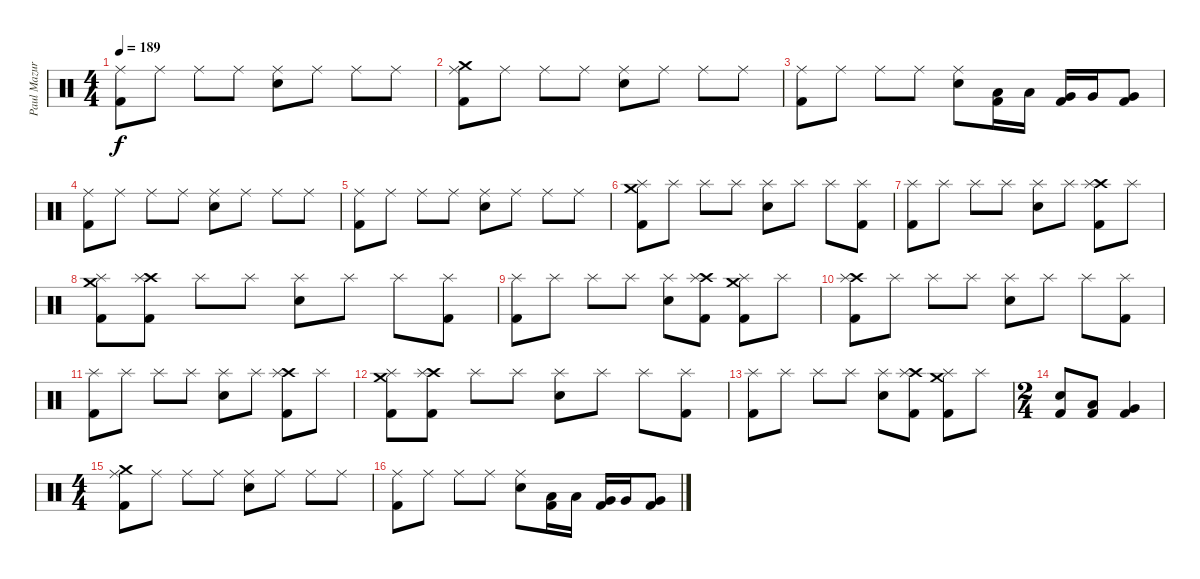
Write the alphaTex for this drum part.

\track ("Paul Mazurkevitch" "Paul Mazur") {instrument percussion}
\staff {score}
\articulation defaults
\ts (4 4)
\tempo 189
\clef neutral
\ks c
("Ride (middle)" "Kick (hit) 2").8{dy f} "Ride (middle)".8 "Ride (middle)".8 "Ride (middle)".8 ("Ride (middle)" "Electric Snare (hit)").8 "Ride (middle)".8 "Ride (middle)".8 "Ride (middle)".8 |
("Crash medium (hit)" "Ride (middle)" "Kick (hit) 2").8 "Ride (middle)".8 "Ride (middle)".8 "Ride (middle)".8 ("Ride (middle)" "Electric Snare (hit)").8 "Ride (middle)".8 "Ride (middle)".8 "Ride (middle)".8 |
("Ride (middle)" "Kick (hit) 2").8 "Ride (middle)".8 "Ride (middle)".8 "Ride (middle)".8 ("Ride (middle)" "Electric Snare (hit)").8 ("Low Tom (hit)" "Kick (hit) 2").16 "Low Tom (hit)".16 ("Very Low Tom (hit)" "Kick (hit) 2").16 "Very Low Tom (hit)".16 ("Very Low Tom (hit)" "Kick (hit) 2").8 |
("Ride (middle)" "Kick (hit) 2").8 "Ride (middle)".8 "Ride (middle)".8 "Ride (middle)".8 ("Ride (middle)" "Electric Snare (hit)").8 "Ride (middle)".8 "Ride (middle)".8 "Ride (middle)".8 |
("Ride (middle)" "Kick (hit) 2").8 "Ride (middle)".8 "Ride (middle)".8 "Ride (middle)".8 ("Ride (middle)" "Electric Snare (hit)").8 "Ride (middle)".8 "Ride (middle)".8 "Ride (middle)".8 |
("Crash medium (hit)" "Splash (hit)" "Kick (hit) 2").8 "Splash (hit)".8 "Splash (hit)".8 "Splash (hit)".8 ("Splash (hit)" "Electric Snare (hit)").8 "Splash (hit)".8 "Splash (hit)".8 ("Splash (hit)" "Kick (hit) 2").8 |
("Splash (hit)" "Kick (hit) 2").8 "Splash (hit)".8 "Splash (hit)".8 "Splash (hit)".8 ("Splash (hit)" "Electric Snare (hit)").8 "Splash (hit)".8 ("Crash high (hit)" "Splash (hit)" "Kick (hit) 2").8 "Splash (hit)".8 |
("Crash medium (hit)" "Splash (hit)" "Kick (hit) 2").8 ("Crash high (hit)" "Splash (hit)" "Kick (hit) 2").8 "Splash (hit)".8 "Splash (hit)".8 ("Splash (hit)" "Electric Snare (hit)").8 "Splash (hit)".8 "Splash (hit)".8 ("Splash (hit)" "Kick (hit) 2").8 |
("Splash (hit)" "Kick (hit) 2").8 "Splash (hit)".8 "Splash (hit)".8 "Splash (hit)".8 ("Splash (hit)" "Electric Snare (hit)").8 ("Crash high (hit)" "Splash (hit)" "Kick (hit) 2").8 ("Crash medium (hit)" "Splash (hit)" "Kick (hit) 2").8 "Splash (hit)".8 |
("Crash high (hit)" "Splash (hit)" "Kick (hit) 2").8 "Splash (hit)".8 "Splash (hit)".8 "Splash (hit)".8 ("Splash (hit)" "Electric Snare (hit)").8 "Splash (hit)".8 "Splash (hit)".8 ("Splash (hit)" "Kick (hit) 2").8 |
("Splash (hit)" "Kick (hit) 2").8 "Splash (hit)".8 "Splash (hit)".8 "Splash (hit)".8 ("Splash (hit)" "Electric Snare (hit)").8 "Splash (hit)".8 ("Crash high (hit)" "Splash (hit)" "Kick (hit) 2").8 "Splash (hit)".8 |
("Crash medium (hit)" "Splash (hit)" "Kick (hit) 2").8 ("Crash high (hit)" "Splash (hit)" "Kick (hit) 2").8 "Splash (hit)".8 "Splash (hit)".8 ("Splash (hit)" "Electric Snare (hit)").8 "Splash (hit)".8 "Splash (hit)".8 ("Splash (hit)" "Kick (hit) 2").8 |
("Splash (hit)" "Kick (hit) 2").8 "Splash (hit)".8 "Splash (hit)".8 "Splash (hit)".8 ("Splash (hit)" "Electric Snare (hit)").8 ("Crash high (hit)" "Splash (hit)" "Kick (hit) 2").8 ("Crash medium (hit)" "Splash (hit)" "Kick (hit) 2").8 "Splash (hit)".8 |
\ts (2 4)
("Electric Snare (hit)" "Kick (hit) 2").8 ("Low Tom (hit)" "Kick (hit) 2").8 ("Very Low Tom (hit)" "Kick (hit) 2").4 |
\ts (4 4)
("Crash medium (hit)" "Ride (middle)" "Kick (hit) 2").8 "Ride (middle)".8 "Ride (middle)".8 "Ride (middle)".8 ("Ride (middle)" "Electric Snare (hit)").8 "Ride (middle)".8 "Ride (middle)".8 "Ride (middle)".8 |
("Ride (middle)" "Kick (hit) 2").8 "Ride (middle)".8 "Ride (middle)".8 "Ride (middle)".8 ("Ride (middle)" "Electric Snare (hit)").8 ("Low Tom (hit)" "Kick (hit) 2").16 "Low Tom (hit)".16 ("Very Low Tom (hit)" "Kick (hit) 2").16 "Very Low Tom (hit)".16 ("Very Low Tom (hit)" "Kick (hit) 2").8
